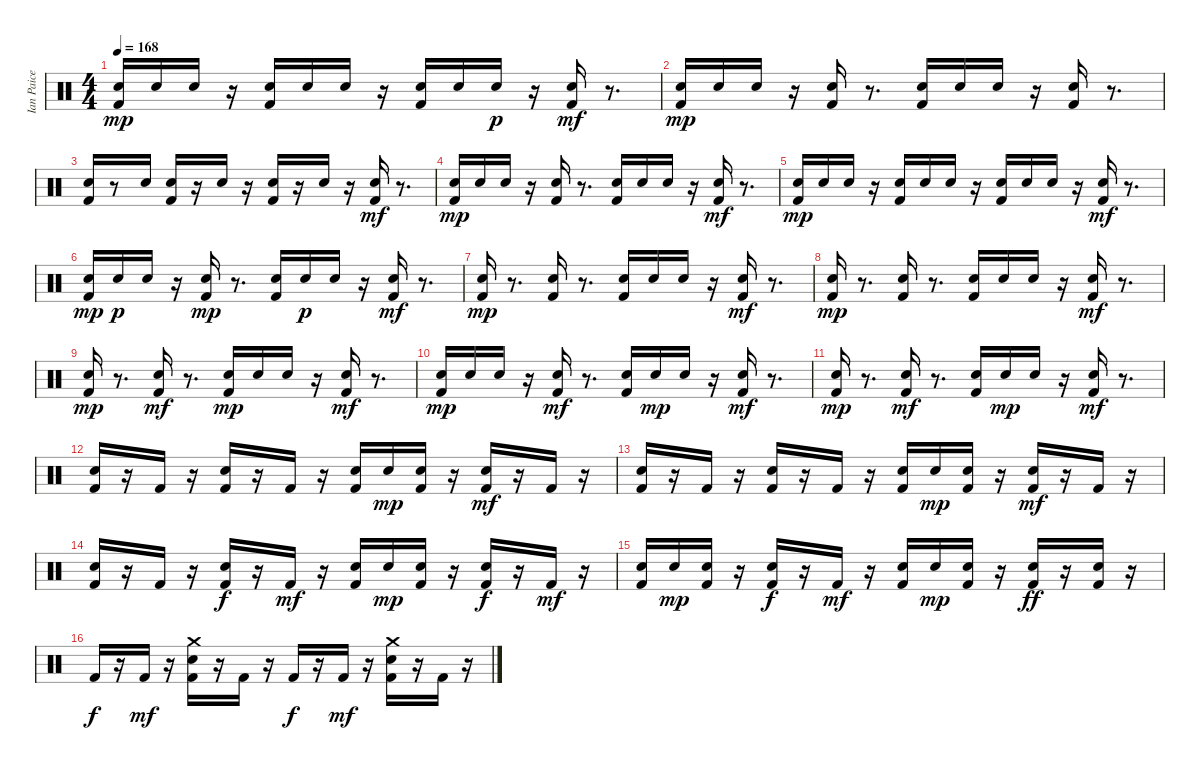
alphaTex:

\track ("Ian Paice" "Ian Paice") {instrument percussion}
\staff {score}
\articulation defaults
\ts (4 4)
\tempo 168
\clef neutral
\ks c
("Kick (hit) 2" "Electric Snare (hit)").16{dy mp} "Electric Snare (hit)".16 "Electric Snare (hit)".16 r.16 ("Kick (hit) 2" "Electric Snare (hit)").16 "Electric Snare (hit)".16 "Electric Snare (hit)".16 r.16 ("Kick (hit) 2" "Electric Snare (hit)").16 "Electric Snare (hit)".16 "Electric Snare (hit)".16{dy p} r.16 ("Kick (hit) 2" "Electric Snare (hit)").16{dy mf} r.8{d} |
("Kick (hit) 2" "Electric Snare (hit)").16{dy mp} "Electric Snare (hit)".16 "Electric Snare (hit)".16 r.16 ("Kick (hit) 2" "Electric Snare (hit)").16 r.8{d} ("Kick (hit) 2" "Electric Snare (hit)").16 "Electric Snare (hit)".16 "Electric Snare (hit)".16 r.16 ("Kick (hit) 2" "Electric Snare (hit)").16 r.8{d} |
("Kick (hit) 2" "Electric Snare (hit)").16 r.8 "Electric Snare (hit)".16 ("Kick (hit) 2" "Electric Snare (hit)").16 r.16 "Electric Snare (hit)".16 r.16 ("Kick (hit) 2" "Electric Snare (hit)").16 r.16 "Electric Snare (hit)".16 r.16 ("Kick (hit) 2" "Electric Snare (hit)").16{dy mf} r.8{d} |
("Kick (hit) 2" "Electric Snare (hit)").16{dy mp} "Electric Snare (hit)".16 "Electric Snare (hit)".16 r.16 ("Kick (hit) 2" "Electric Snare (hit)").16 r.8{d} ("Kick (hit) 2" "Electric Snare (hit)").16 "Electric Snare (hit)".16 "Electric Snare (hit)".16 r.16 ("Kick (hit) 2" "Electric Snare (hit)").16{dy mf} r.8{d} |
("Kick (hit) 2" "Electric Snare (hit)").16{dy mp} "Electric Snare (hit)".16 "Electric Snare (hit)".16 r.16 ("Kick (hit) 2" "Electric Snare (hit)").16 "Electric Snare (hit)".16 "Electric Snare (hit)".16 r.16 ("Kick (hit) 2" "Electric Snare (hit)").16 "Electric Snare (hit)".16 "Electric Snare (hit)".16 r.16 ("Kick (hit) 2" "Electric Snare (hit)").16{dy mf} r.8{d} |
("Kick (hit) 2" "Electric Snare (hit)").16{dy mp} "Electric Snare (hit)".16{dy p} "Electric Snare (hit)".16 r.16 ("Kick (hit) 2" "Electric Snare (hit)").16{dy mp} r.8{d} ("Kick (hit) 2" "Electric Snare (hit)").16 "Electric Snare (hit)".16{dy p} "Electric Snare (hit)".16 r.16 ("Kick (hit) 2" "Electric Snare (hit)").16{dy mf} r.8{d} |
("Kick (hit) 2" "Electric Snare (hit)").16{dy mp} r.8{d} ("Kick (hit) 2" "Electric Snare (hit)").16 r.8{d} ("Kick (hit) 2" "Electric Snare (hit)").16 "Electric Snare (hit)".16 "Electric Snare (hit)".16 r.16 ("Kick (hit) 2" "Electric Snare (hit)").16{dy mf} r.8{d} |
("Kick (hit) 2" "Electric Snare (hit)").16{dy mp} r.8{d} ("Kick (hit) 2" "Electric Snare (hit)").16 r.8{d} ("Kick (hit) 2" "Electric Snare (hit)").16 "Electric Snare (hit)".16 "Electric Snare (hit)".16 r.16 ("Kick (hit) 2" "Electric Snare (hit)").16{dy mf} r.8{d} |
("Kick (hit) 2" "Electric Snare (hit)").16{dy mp} r.8{d} ("Electric Snare (hit)" "Kick (hit) 2").16{dy mf} r.8{d} ("Kick (hit) 2" "Electric Snare (hit)").16{dy mp} "Electric Snare (hit)".16 "Electric Snare (hit)".16 r.16 ("Kick (hit) 2" "Electric Snare (hit)").16{dy mf} r.8{d} |
("Kick (hit) 2" "Electric Snare (hit)").16{dy mp} "Electric Snare (hit)".16 "Electric Snare (hit)".16 r.16 ("Electric Snare (hit)" "Kick (hit) 2").16{dy mf} r.8{d} ("Kick (hit) 2" "Electric Snare (hit)").16 "Electric Snare (hit)".16{dy mp} "Electric Snare (hit)".16 r.16 ("Kick (hit) 2" "Electric Snare (hit)").16{dy mf} r.8{d} |
("Kick (hit) 2" "Electric Snare (hit)").16{dy mp} r.8{d} ("Electric Snare (hit)" "Kick (hit) 2").16{dy mf} r.8{d} ("Kick (hit) 2" "Electric Snare (hit)").16 "Electric Snare (hit)".16{dy mp} "Electric Snare (hit)".16 r.16 ("Kick (hit) 2" "Electric Snare (hit)").16{dy mf} r.8{d} |
("Kick (hit) 2" "Electric Snare (hit)").16 r.16 "Kick (hit) 2".16 r.16 ("Electric Snare (hit)" "Kick (hit) 2").16 r.16 "Kick (hit) 2".16 r.16 ("Kick (hit) 2" "Electric Snare (hit)").16 "Electric Snare (hit)".16{dy mp} ("Kick (hit) 2" "Electric Snare (hit)").16 r.16 ("Kick (hit) 2" "Electric Snare (hit)").16{dy mf} r.16 "Kick (hit) 2".16 r.16 |
("Kick (hit) 2" "Electric Snare (hit)").16 r.16 "Kick (hit) 2".16 r.16 ("Kick (hit) 2" "Electric Snare (hit)").16 r.16 "Kick (hit) 2".16 r.16 ("Kick (hit) 2" "Electric Snare (hit)").16 "Electric Snare (hit)".16{dy mp} ("Kick (hit) 2" "Electric Snare (hit)").16 r.16 ("Kick (hit) 2" "Electric Snare (hit)").16{dy mf} r.16 "Kick (hit) 2".16 r.16 |
("Kick (hit) 2" "Electric Snare (hit)").16 r.16 "Kick (hit) 2".16 r.16 ("Kick (hit) 2" "Electric Snare (hit)").16{dy f} r.16 "Kick (hit) 2".16{dy mf} r.16 ("Kick (hit) 2" "Electric Snare (hit)").16 "Electric Snare (hit)".16{dy mp} ("Kick (hit) 2" "Electric Snare (hit)").16 r.16 ("Kick (hit) 2" "Electric Snare (hit)").16{dy f} r.16 "Kick (hit) 2".16{dy mf} r.16 |
("Kick (hit) 2" "Electric Snare (hit)").16 "Electric Snare (hit)".16{dy mp} ("Kick (hit) 2" "Electric Snare (hit)").16 r.16 ("Kick (hit) 2" "Electric Snare (hit)").16{dy f} r.16 "Kick (hit) 2".16{dy mf} r.16 ("Kick (hit) 2" "Electric Snare (hit)").16 "Electric Snare (hit)".16{dy mp} ("Kick (hit) 2" "Electric Snare (hit)").16 r.16 ("Kick (hit) 2" "Electric Snare (hit)").16{dy ff} r.16 ("Kick (hit) 2" "Electric Snare (hit)").16 r.16 |
"Kick (hit) 2".16{dy f} r.16 "Kick (hit) 2".16{dy mf} r.16 ("Electric Snare (hit)" "Kick (hit) 2" "Crash medium (hit)").16 r.16 "Kick (hit) 2".16 r.16 "Kick (hit) 2".16{dy f} r.16 "Kick (hit) 2".16{dy mf} r.16 ("Electric Snare (hit)" "Kick (hit) 2" "Crash medium (hit)").16 r.16 "Kick (hit) 2".16 r.16
